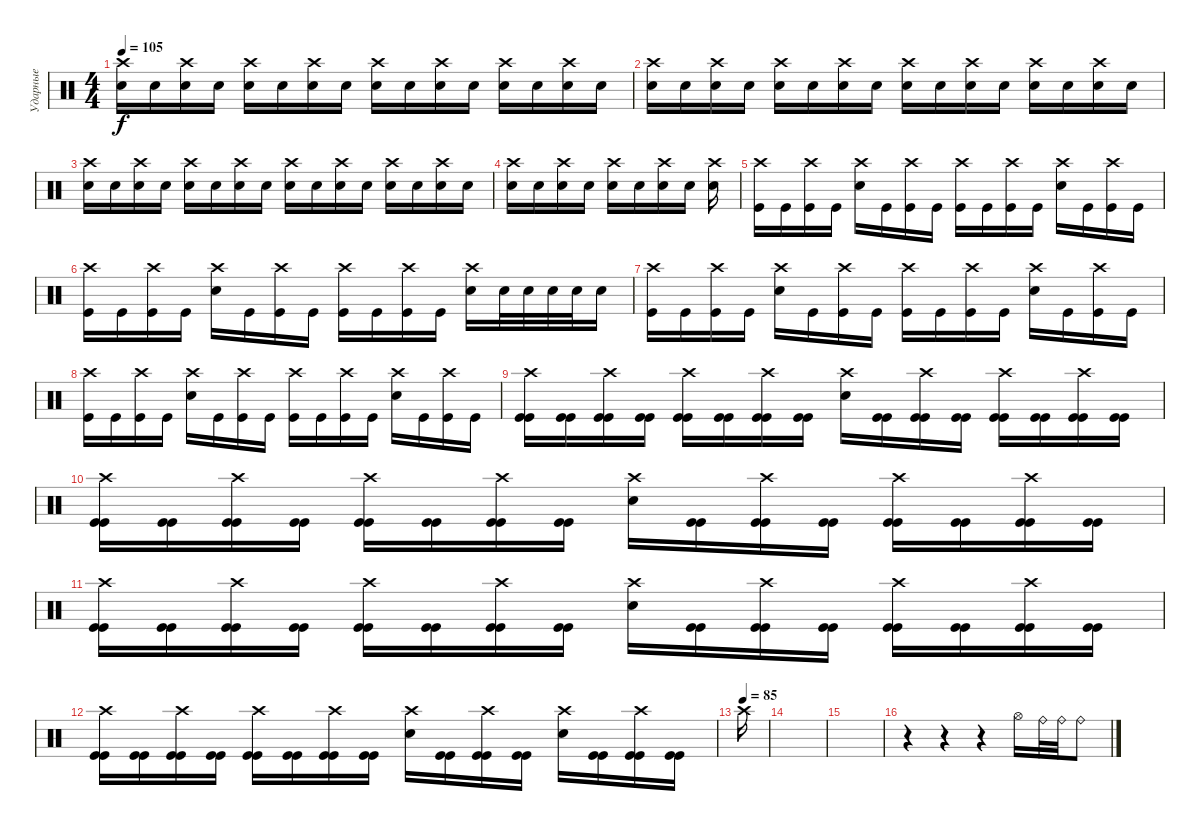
\track ("Ударные" "Ударные") {instrument percussion}
\staff {score}
\articulation defaults
\ts (4 4)
\tempo 105
\clef neutral
\ks c
("Crash high (hit)" "Electric Snare (hit)").16{dy f} "Electric Snare (hit)".16 ("Crash high (hit)" "Electric Snare (hit)").16 "Electric Snare (hit)".16 ("Crash high (hit)" "Electric Snare (hit)").16 "Electric Snare (hit)".16 ("Crash high (hit)" "Electric Snare (hit)").16 "Electric Snare (hit)".16 ("Crash high (hit)" "Electric Snare (hit)").16 "Electric Snare (hit)".16 ("Crash high (hit)" "Electric Snare (hit)").16 "Electric Snare (hit)".16 ("Crash high (hit)" "Electric Snare (hit)").16 "Electric Snare (hit)".16 ("Crash high (hit)" "Electric Snare (hit)").16 "Electric Snare (hit)".16 |
("Crash high (hit)" "Electric Snare (hit)").16 "Electric Snare (hit)".16 ("Crash high (hit)" "Electric Snare (hit)").16 "Electric Snare (hit)".16 ("Crash high (hit)" "Electric Snare (hit)").16 "Electric Snare (hit)".16 ("Crash high (hit)" "Electric Snare (hit)").16 "Electric Snare (hit)".16 ("Crash high (hit)" "Electric Snare (hit)").16 "Electric Snare (hit)".16 ("Crash high (hit)" "Electric Snare (hit)").16 "Electric Snare (hit)".16 ("Crash high (hit)" "Electric Snare (hit)").16 "Electric Snare (hit)".16 ("Crash high (hit)" "Electric Snare (hit)").16 "Electric Snare (hit)".16 |
("Crash high (hit)" "Electric Snare (hit)").16 "Electric Snare (hit)".16 ("Crash high (hit)" "Electric Snare (hit)").16 "Electric Snare (hit)".16 ("Crash high (hit)" "Electric Snare (hit)").16 "Electric Snare (hit)".16 ("Crash high (hit)" "Electric Snare (hit)").16 "Electric Snare (hit)".16 ("Crash high (hit)" "Electric Snare (hit)").16 "Electric Snare (hit)".16 ("Crash high (hit)" "Electric Snare (hit)").16 "Electric Snare (hit)".16 ("Crash high (hit)" "Electric Snare (hit)").16 "Electric Snare (hit)".16 ("Crash high (hit)" "Electric Snare (hit)").16 "Electric Snare (hit)".16 |
("Crash high (hit)" "Electric Snare (hit)").16 "Electric Snare (hit)".16 ("Crash high (hit)" "Electric Snare (hit)").16 "Electric Snare (hit)".16 ("Crash high (hit)" "Electric Snare (hit)").16 "Electric Snare (hit)".16 ("Crash high (hit)" "Electric Snare (hit)").16 "Electric Snare (hit)".16 ("Crash high (hit)" "Electric Snare (hit)").16 |
("Crash high (hit)" "Kick (hit)").16 "Kick (hit)".16 ("Crash high (hit)" "Kick (hit)").16 "Kick (hit)".16 ("Crash high (hit)" "Electric Snare (hit)").16 "Kick (hit)".16 ("Crash high (hit)" "Kick (hit)").16 "Kick (hit)".16 ("Crash high (hit)" "Kick (hit)").16 "Kick (hit)".16 ("Crash high (hit)" "Kick (hit)").16 "Kick (hit)".16 ("Crash high (hit)" "Electric Snare (hit)").16 "Kick (hit)".16 ("Crash high (hit)" "Kick (hit)").16 "Kick (hit)".16 |
("Crash high (hit)" "Kick (hit)").16 "Kick (hit)".16 ("Crash high (hit)" "Kick (hit)").16 "Kick (hit)".16 ("Crash high (hit)" "Electric Snare (hit)").16 "Kick (hit)".16 ("Crash high (hit)" "Kick (hit)").16 "Kick (hit)".16 ("Crash high (hit)" "Kick (hit)").16 "Kick (hit)".16 ("Crash high (hit)" "Kick (hit)").16 "Kick (hit)".16 ("Crash high (hit)" "Electric Snare (hit)").16 "Electric Snare (hit)".32 "Electric Snare (hit)".32 "Electric Snare (hit)".32 "Electric Snare (hit)".32 "Electric Snare (hit)".16 |
("Crash high (hit)" "Kick (hit)").16 "Kick (hit)".16 ("Crash high (hit)" "Kick (hit)").16 "Kick (hit)".16 ("Crash high (hit)" "Electric Snare (hit)").16 "Kick (hit)".16 ("Crash high (hit)" "Kick (hit)").16 "Kick (hit)".16 ("Crash high (hit)" "Kick (hit)").16 "Kick (hit)".16 ("Crash high (hit)" "Kick (hit)").16 "Kick (hit)".16 ("Crash high (hit)" "Electric Snare (hit)").16 "Kick (hit)".16 ("Crash high (hit)" "Kick (hit)").16 "Kick (hit)".16 |
("Crash high (hit)" "Kick (hit)").16 "Kick (hit)".16 ("Crash high (hit)" "Kick (hit)").16 "Kick (hit)".16 ("Crash high (hit)" "Electric Snare (hit)").16 "Kick (hit)".16 ("Crash high (hit)" "Kick (hit)").16 "Kick (hit)".16 ("Crash high (hit)" "Kick (hit)").16 "Kick (hit)".16 ("Crash high (hit)" "Kick (hit)").16 "Kick (hit)".16 ("Crash high (hit)" "Electric Snare (hit)").16 "Kick (hit)".16 ("Crash high (hit)" "Kick (hit)").16 "Kick (hit)".16 |
("Crash high (hit)" "Kick (hit)" "Kick (hit)").16 ("Kick (hit)" "Kick (hit)").16 ("Crash high (hit)" "Kick (hit)" "Kick (hit)").16 ("Kick (hit)" "Kick (hit)").16 ("Crash high (hit)" "Kick (hit)" "Kick (hit)").16 ("Kick (hit)" "Kick (hit)").16 ("Crash high (hit)" "Kick (hit)" "Kick (hit)").16 ("Kick (hit)" "Kick (hit)").16 ("Crash high (hit)" "Electric Snare (hit)").16 ("Kick (hit)" "Kick (hit)").16 ("Crash high (hit)" "Kick (hit)" "Kick (hit)").16 ("Kick (hit)" "Kick (hit)").16 ("Crash high (hit)" "Kick (hit)" "Kick (hit)").16 ("Kick (hit)" "Kick (hit)").16 ("Crash high (hit)" "Kick (hit)" "Kick (hit)").16 ("Kick (hit)" "Kick (hit)").16 |
("Crash high (hit)" "Kick (hit)" "Kick (hit)").16 ("Kick (hit)" "Kick (hit)").16 ("Crash high (hit)" "Kick (hit)" "Kick (hit)").16 ("Kick (hit)" "Kick (hit)").16 ("Crash high (hit)" "Kick (hit)" "Kick (hit)").16 ("Kick (hit)" "Kick (hit)").16 ("Crash high (hit)" "Kick (hit)" "Kick (hit)").16 ("Kick (hit)" "Kick (hit)").16 ("Crash high (hit)" "Electric Snare (hit)").16 ("Kick (hit)" "Kick (hit)").16 ("Crash high (hit)" "Kick (hit)" "Kick (hit)").16 ("Kick (hit)" "Kick (hit)").16 ("Crash high (hit)" "Kick (hit)" "Kick (hit)").16 ("Kick (hit)" "Kick (hit)").16 ("Crash high (hit)" "Kick (hit)" "Kick (hit)").16 ("Kick (hit)" "Kick (hit)").16 |
("Crash high (hit)" "Kick (hit)" "Kick (hit)").16 ("Kick (hit)" "Kick (hit)").16 ("Crash high (hit)" "Kick (hit)" "Kick (hit)").16 ("Kick (hit)" "Kick (hit)").16 ("Crash high (hit)" "Kick (hit)" "Kick (hit)").16 ("Kick (hit)" "Kick (hit)").16 ("Crash high (hit)" "Kick (hit)" "Kick (hit)").16 ("Kick (hit)" "Kick (hit)").16 ("Crash high (hit)" "Electric Snare (hit)").16 ("Kick (hit)" "Kick (hit)").16 ("Crash high (hit)" "Kick (hit)" "Kick (hit)").16 ("Kick (hit)" "Kick (hit)").16 ("Crash high (hit)" "Kick (hit)" "Kick (hit)").16 ("Kick (hit)" "Kick (hit)").16 ("Crash high (hit)" "Kick (hit)" "Kick (hit)").16 ("Kick (hit)" "Kick (hit)").16 |
("Crash high (hit)" "Kick (hit)" "Kick (hit)").16 ("Kick (hit)" "Kick (hit)").16 ("Crash high (hit)" "Kick (hit)" "Kick (hit)").16 ("Kick (hit)" "Kick (hit)").16 ("Crash high (hit)" "Kick (hit)" "Kick (hit)").16 ("Kick (hit)" "Kick (hit)").16 ("Crash high (hit)" "Kick (hit)" "Kick (hit)").16 ("Kick (hit)" "Kick (hit)").16 ("Crash high (hit)" "Electric Snare (hit)").16 ("Kick (hit)" "Kick (hit)").16 ("Crash high (hit)" "Kick (hit)" "Kick (hit)").16 ("Kick (hit)" "Kick (hit)").16 ("Crash high (hit)" "Electric Snare (hit)").16 ("Kick (hit)" "Kick (hit)").16 ("Crash high (hit)" "Kick (hit)" "Kick (hit)").16 ("Kick (hit)" "Kick (hit)").16 |
\tempo (85)
"Crash high (hit)".16 |
|
|
r.4 r.4 r.4 "Hi-Hat (open)".16 "Ride (bell)".32 "Ride (bell)".32 "Ride (bell)".8
